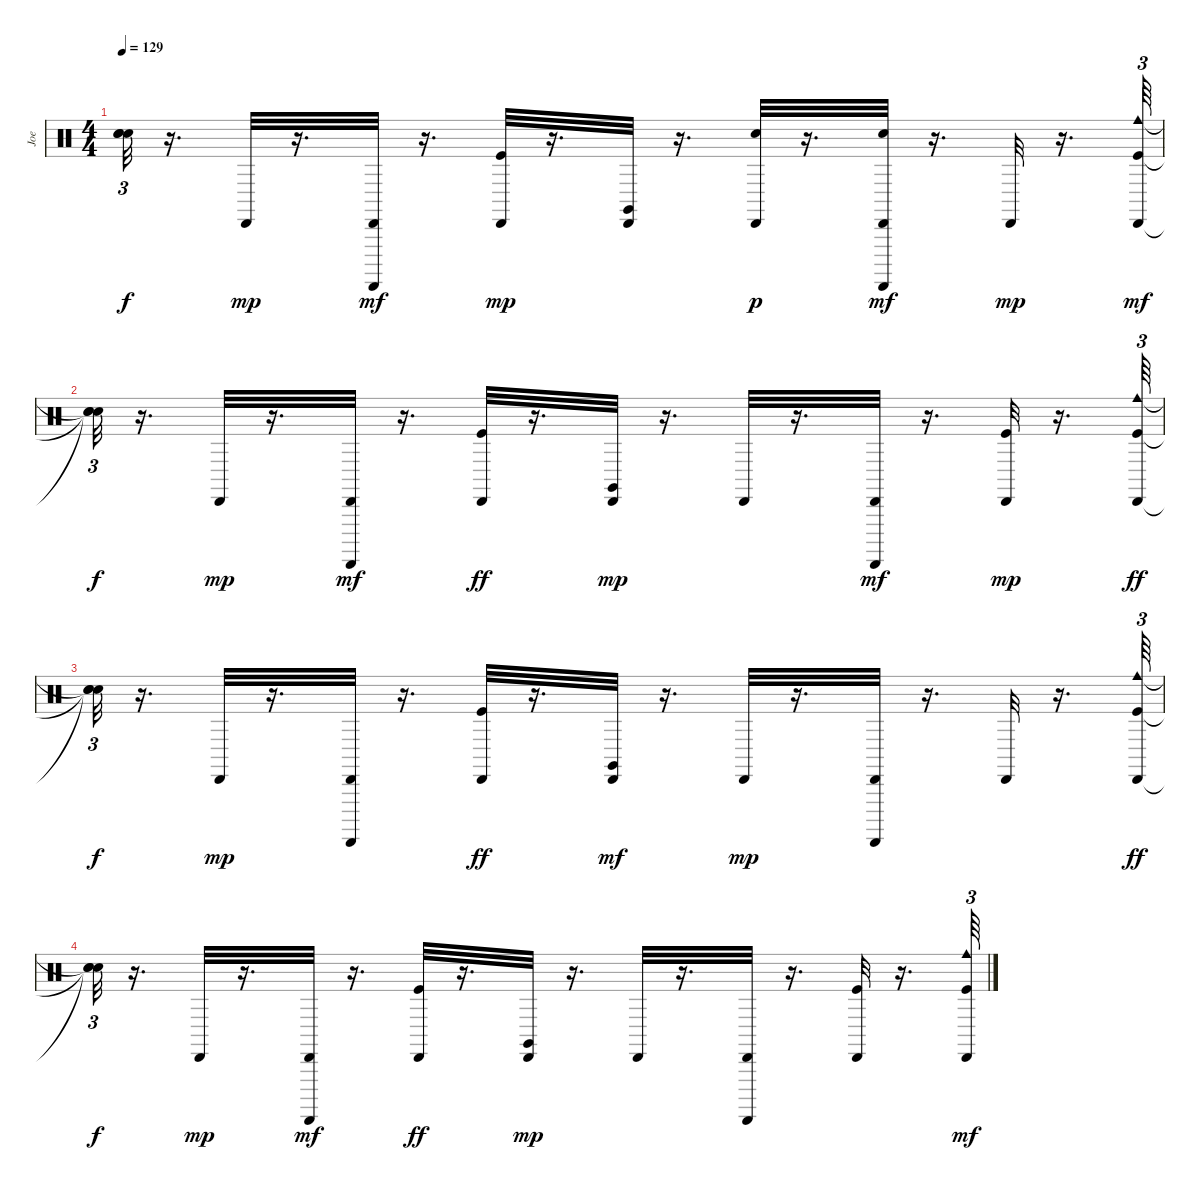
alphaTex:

\track ("Joe" "Joe") {instrument percussion}
\staff {score}
\articulation defaults
\ts (4 4)
\tempo 129
\clef neutral
\ks c
("Snare (hit)"{t} "Snare (hit)"{t} "Snare (hit)"{t}).32{tu (3 2) dy f} r.16{d} "Cabasa (hit)".32{dy mp} r.16{d} ("Cabasa (hit)" "Guiro (scrap-return)").32{dy mf} r.16{d} ("Kick (hit)" "Cabasa (hit)").32{dy mp} r.16{d} ("Cabasa (hit)" "Claves (hit)").32 r.16{d} ("Snare (hit) 2" "Cabasa (hit)").32{dy p} r.16{d} ("Snare (hit) 2" "Cabasa (hit)" "Guiro (scrap-return)").32{dy mf} r.16{d} "Cabasa (hit)".32{dy mp} r.16{d} ("Kick (hit)" "Cabasa (hit)" "Cowbell medium (hit)").64{tu (3 2) dy mf} |
("Snare (hit)"{t} "Snare (hit)"{t} "Snare (hit)"{t}).32{tu (3 2) dy f} r.16{d} "Cabasa (hit)".32{dy mp} r.16{d} ("Cabasa (hit)" "Guiro (scrap-return)").32{dy mf} r.16{d} ("Cabasa (hit)" "Kick (hit)").32{dy ff} r.16{d} ("Cabasa (hit)" "Claves (hit)").32{dy mp} r.16{d} "Cabasa (hit)".32 r.16{d} ("Cabasa (hit)" "Guiro (scrap-return)").32{dy mf} r.16{d} ("Kick (hit)" "Cabasa (hit)").32{dy mp} r.16{d} ("Cowbell medium (hit)" "Cabasa (hit)" "Kick (hit)").64{tu (3 2) dy ff} |
("Snare (hit)"{t} "Snare (hit)"{t} "Snare (hit)"{t}).32{tu (3 2) dy f} r.16{d} "Cabasa (hit)".32{dy mp} r.16{d} ("Cabasa (hit)" "Guiro (scrap-return)").32 r.16{d} ("Cabasa (hit)" "Kick (hit)").32{dy ff} r.16{d} ("Cabasa (hit)" "Claves (hit)").32{dy mf} r.16{d} "Cabasa (hit)".32{dy mp} r.16{d} ("Cabasa (hit)" "Guiro (scrap-return)").32 r.16{d} "Cabasa (hit)".32 r.16{d} ("Cowbell medium (hit)" "Cabasa (hit)" "Kick (hit)").64{tu (3 2) dy ff} |
("Snare (hit)"{t} "Snare (hit)"{t} "Snare (hit)"{t}).32{tu (3 2) dy f} r.16{d} "Cabasa (hit)".32{dy mp} r.16{d} ("Cabasa (hit)" "Guiro (scrap-return)").32{dy mf} r.16{d} ("Cabasa (hit)" "Kick (hit)").32{dy ff} r.16{d} ("Cabasa (hit)" "Claves (hit)").32{dy mp} r.16{d} "Cabasa (hit)".32 r.16{d} ("Cabasa (hit)" "Guiro (scrap-return)").32 r.16{d} ("Kick (hit)" "Cabasa (hit)").32 r.16{d} ("Kick (hit)" "Cabasa (hit)" "Cowbell medium (hit)").64{tu (3 2) dy mf}
